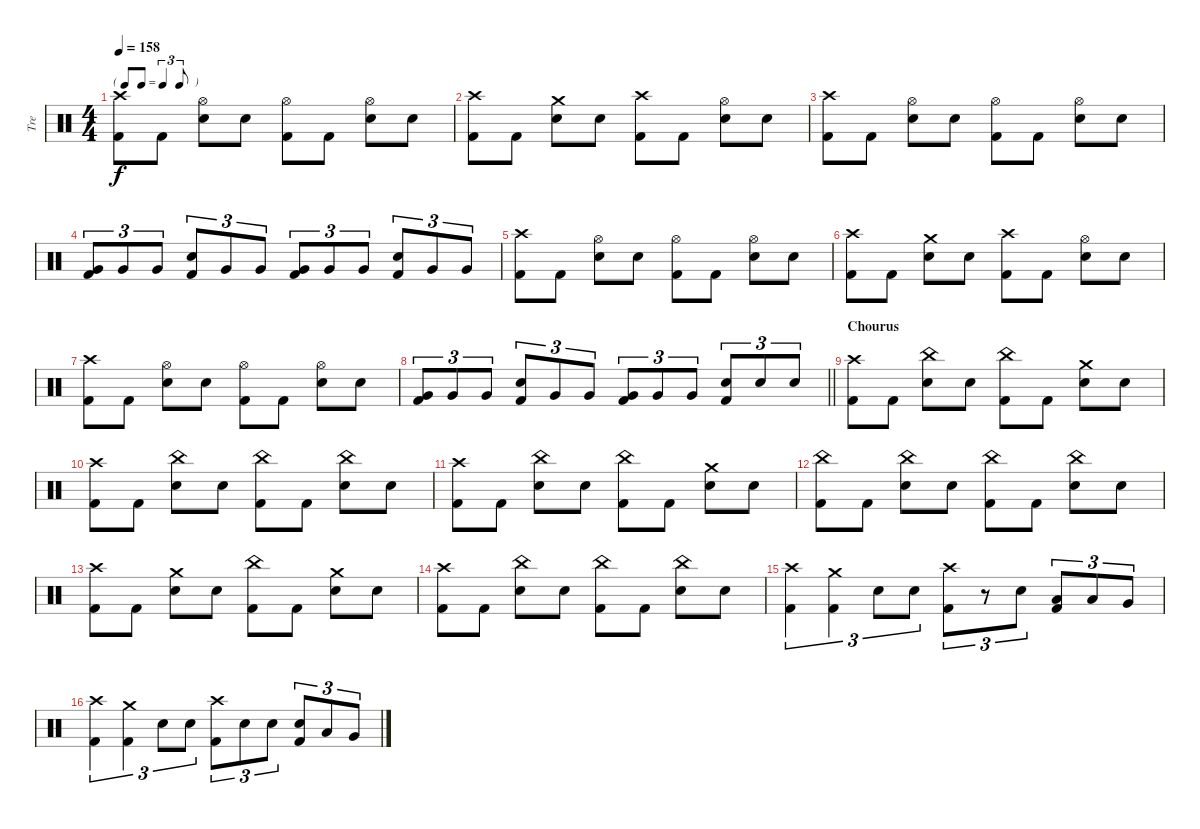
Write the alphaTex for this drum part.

\track ("Tre" "Tre") {instrument percussion}
\staff {score}
\articulation defaults
\ts (4 4)
\tf triplet8th
\tempo 158
\clef neutral
\ks c
("Crash high (hit)" "Kick (hit) 2").8{dy f} "Kick (hit) 2".8 ("Hi-Hat (open)" "Snare (hit) 2").8 "Snare (hit) 2".8 ("Hi-Hat (open)" "Kick (hit) 2").8 "Kick (hit) 2".8 ("Hi-Hat (open)" "Snare (hit) 2").8 "Snare (hit) 2".8 |
("Crash high (hit)" "Kick (hit) 2").8 "Kick (hit) 2".8 ("Crash medium (hit)" "Snare (hit) 2").8 "Snare (hit) 2".8 ("Crash high (hit)" "Kick (hit) 2").8 "Kick (hit) 2".8 ("Hi-Hat (open)" "Snare (hit) 2").8 "Snare (hit) 2".8 |
("Crash high (hit)" "Kick (hit) 2").8 "Kick (hit) 2".8 ("Hi-Hat (open)" "Snare (hit) 2").8 "Snare (hit) 2".8 ("Hi-Hat (open)" "Kick (hit) 2").8 "Kick (hit) 2".8 ("Hi-Hat (open)" "Snare (hit) 2").8 "Snare (hit) 2".8 |
("Very Low Tom (hit)" "Kick (hit) 2").8{tu (3 2)} "Very Low Tom (hit)".8{tu (3 2)} "Very Low Tom (hit)".8{tu (3 2)} ("Snare (hit) 2" "Kick (hit) 2").8{tu (3 2)} "Very Low Tom (hit)".8{tu (3 2)} "Very Low Tom (hit)".8{tu (3 2)} ("Very Low Tom (hit)" "Kick (hit) 2").8{tu (3 2)} "Very Low Tom (hit)".8{tu (3 2)} "Very Low Tom (hit)".8{tu (3 2)} ("Snare (hit) 2" "Kick (hit) 2").8{tu (3 2)} "Very Low Tom (hit)".8{tu (3 2)} "Very Low Tom (hit)".8{tu (3 2)} |
("Crash high (hit)" "Kick (hit) 2").8 "Kick (hit) 2".8 ("Hi-Hat (open)" "Snare (hit) 2").8 "Snare (hit) 2".8 ("Hi-Hat (open)" "Kick (hit) 2").8 "Kick (hit) 2".8 ("Hi-Hat (open)" "Snare (hit) 2").8 "Snare (hit) 2".8 |
("Crash high (hit)" "Kick (hit) 2").8 "Kick (hit) 2".8 ("Crash medium (hit)" "Snare (hit) 2").8 "Snare (hit) 2".8 ("Crash high (hit)" "Kick (hit) 2").8 "Kick (hit) 2".8 ("Hi-Hat (open)" "Snare (hit) 2").8 "Snare (hit) 2".8 |
("Crash high (hit)" "Kick (hit) 2").8 "Kick (hit) 2".8 ("Hi-Hat (open)" "Snare (hit) 2").8 "Snare (hit) 2".8 ("Hi-Hat (open)" "Kick (hit) 2").8 "Kick (hit) 2".8 ("Hi-Hat (open)" "Snare (hit) 2").8 "Snare (hit) 2".8 |
\barLineRight lightlight
("Very Low Tom (hit)" "Kick (hit) 2").8{tu (3 2)} "Very Low Tom (hit)".8{tu (3 2)} "Very Low Tom (hit)".8{tu (3 2)} ("Snare (hit) 2" "Kick (hit) 2").8{tu (3 2)} "Very Low Tom (hit)".8{tu (3 2)} "Very Low Tom (hit)".8{tu (3 2)} ("Very Low Tom (hit)" "Kick (hit) 2").8{tu (3 2)} "Very Low Tom (hit)".8{tu (3 2)} "Very Low Tom (hit)".8{tu (3 2)} ("Snare (hit) 2" "Kick (hit) 2").8{tu (3 2)} "Snare (hit) 2".8{tu (3 2)} "Snare (hit) 2".8{tu (3 2)} |
\section ("" "Chourus")
("Crash high (hit)" "Kick (hit) 2").8 "Kick (hit) 2".8 ("China (hit)" "Snare (hit) 2").8 "Snare (hit) 2".8 ("China (hit)" "Kick (hit) 2").8 "Kick (hit) 2".8 ("Crash medium (hit)" "Snare (hit) 2").8 "Snare (hit) 2".8 |
("Crash high (hit)" "Kick (hit) 2").8 "Kick (hit) 2".8 ("China (hit)" "Snare (hit) 2").8 "Snare (hit) 2".8 ("China (hit)" "Kick (hit) 2").8 "Kick (hit) 2".8 ("China (hit)" "Snare (hit) 2").8 "Snare (hit) 2".8 |
("Crash high (hit)" "Kick (hit) 2").8 "Kick (hit) 2".8 ("China (hit)" "Snare (hit) 2").8 "Snare (hit) 2".8 ("China (hit)" "Kick (hit) 2").8 "Kick (hit) 2".8 ("Crash medium (hit)" "Snare (hit) 2").8 "Snare (hit) 2".8 |
("China (hit)" "Kick (hit) 2").8 "Kick (hit) 2".8 ("China (hit)" "Snare (hit) 2").8 "Snare (hit) 2".8 ("China (hit)" "Kick (hit) 2").8 "Kick (hit) 2".8 ("China (hit)" "Snare (hit) 2").8 "Snare (hit) 2".8 |
("Crash high (hit)" "Kick (hit) 2").8 "Kick (hit) 2".8 ("Crash medium (hit)" "Snare (hit) 2").8 "Snare (hit) 2".8 ("China (hit)" "Kick (hit) 2").8 "Kick (hit) 2".8 ("Crash medium (hit)" "Snare (hit) 2").8 "Snare (hit) 2".8 |
("Crash high (hit)" "Kick (hit) 2").8 "Kick (hit) 2".8 ("China (hit)" "Snare (hit) 2").8 "Snare (hit) 2".8 ("China (hit)" "Kick (hit) 2").8 "Kick (hit) 2".8 ("China (hit)" "Snare (hit) 2").8 "Snare (hit) 2".8 |
("Crash high (hit)" "Kick (hit) 2").4{tu (3 2)} ("Crash medium (hit)" "Kick (hit) 2").4{tu (3 2)} "Snare (hit) 2".8{tu (3 2)} "Snare (hit) 2".8{tu (3 2)} ("Crash high (hit)" "Kick (hit) 2").8{tu (3 2)} r.8{tu (3 2)} "Snare (hit) 2".8{tu (3 2)} ("Low Tom (hit)" "Kick (hit) 2").8{tu (3 2)} "Low Tom (hit)".8{tu (3 2)} "Very Low Tom (hit)".8{tu (3 2)} |
("Crash high (hit)" "Kick (hit) 2").4{tu (3 2)} ("Crash medium (hit)" "Kick (hit) 2").4{tu (3 2)} "Snare (hit) 2".8{tu (3 2)} "Snare (hit) 2".8{tu (3 2)} ("Crash high (hit)" "Kick (hit) 2").8{tu (3 2)} "Snare (hit) 2".8{tu (3 2)} "Snare (hit) 2".8{tu (3 2)} ("Snare (hit) 2" "Kick (hit) 2").8{tu (3 2)} "Low Tom (hit)".8{tu (3 2)} "Very Low Tom (hit)".8{tu (3 2)}
